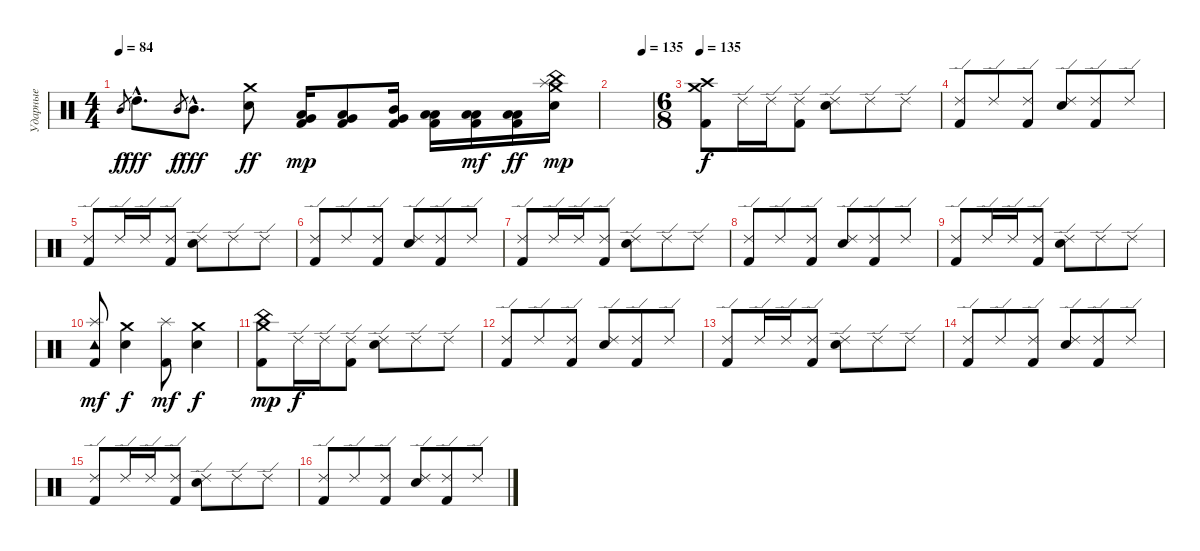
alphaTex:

\track ("Ударные" "Ударные") {instrument percussion}
\staff {score}
\articulation defaults
\ts (4 4)
\tempo 84
\clef neutral
\ks c "Mid Tom (hit)".8{gr dy f} "High Tom (hit)"{hac}.8{d dy fff} "Mid Tom (hit)".8{gr dy f} "Mid Tom (hit)"{hac}.8{d dy fff}
("Crash medium (hit)" "Snare (hit) 2").8{dy ff} ("Low Tom (hit)" "Very Low Tom (hit)" "Kick (hit) 2").16{dy mp} ("Low Tom (hit)" "Very Low Tom (hit)" "Kick (hit) 2").8 ("Mid Tom (hit)" "Very Low Tom (hit)" "Kick (hit) 2").16 ("Low Tom (hit)" "Low Floor Tom (hit)" "Kick (hit) 2").16 ("Low Tom (hit)" "Low Floor Tom (hit)" "Kick (hit) 2").16{dy mf} ("Low Tom (hit)" "Low Floor Tom (hit)" "Kick (hit) 2").16{dy ff} ("Splash (hit)" "Electric Snare (hit)" "Crash medium (hit)" "China (hit)").16{dy mp} |
\tempo (135 0.75)
|
\ts (6 8)
\tempo 135
("Crash high (hit)" "Crash medium (hit)" "Kick (hit) 2").8{dy f} "Ride (edge) 2".16 "Ride (edge) 2".16 ("Ride (edge) 2" "Kick (hit) 2").8 ("Ride (edge) 2" "Electric Snare (hit)").8 "Ride (edge) 2".8 "Ride (edge) 2".8 |
("Ride (edge) 2" "Kick (hit) 2").8 "Ride (edge) 2".8 ("Ride (edge) 2" "Kick (hit) 2").8 ("Ride (edge) 2" "Electric Snare (hit)").8 ("Ride (edge) 2" "Kick (hit) 2").8 "Ride (edge) 2".8 |
("Ride (edge) 2" "Kick (hit) 2").8 "Ride (edge) 2".16 "Ride (edge) 2".16 ("Ride (edge) 2" "Kick (hit) 2").8 ("Ride (edge) 2" "Electric Snare (hit)").8 "Ride (edge) 2".8 "Ride (edge) 2".8 |
("Ride (edge) 2" "Kick (hit) 2").8 "Ride (edge) 2".8 ("Ride (edge) 2" "Kick (hit) 2").8 ("Ride (edge) 2" "Electric Snare (hit)").8 ("Ride (edge) 2" "Kick (hit) 2").8 "Ride (edge) 2".8 |
("Ride (edge) 2" "Kick (hit) 2").8 "Ride (edge) 2".16 "Ride (edge) 2".16 ("Ride (edge) 2" "Kick (hit) 2").8 ("Ride (edge) 2" "Electric Snare (hit)").8 "Ride (edge) 2".8 "Ride (edge) 2".8 |
("Ride (edge) 2" "Kick (hit) 2").8 "Ride (edge) 2".8 ("Ride (edge) 2" "Kick (hit) 2").8 ("Ride (edge) 2" "Electric Snare (hit)").8 ("Ride (edge) 2" "Kick (hit) 2").8 "Ride (edge) 2".8 |
("Ride (edge) 2" "Kick (hit) 2").8 "Ride (edge) 2".16 "Ride (edge) 2".16 ("Ride (edge) 2" "Kick (hit) 2").8 ("Ride (edge) 2" "Electric Snare (hit)").8 "Ride (edge) 2".8 "Ride (edge) 2".8 |
("Kick (hit) 2" "Tambourine (hit)" "Splash (hit)").8{dy mf} ("Electric Snare (hit)" "Crash medium (hit)").4{dy f} ("Kick (hit) 2" "Splash (hit)").8{dy mf} ("Electric Snare (hit)" "Crash medium (hit)").4{dy f} |
("Crash medium (hit)" "China (hit)" "Kick (hit) 2").8{dy mp} "Ride (edge) 2".16{dy f} "Ride (edge) 2".16 ("Ride (edge) 2" "Kick (hit) 2").8 ("Ride (edge) 2" "Electric Snare (hit)").8 "Ride (edge) 2".8 "Ride (edge) 2".8 |
("Ride (edge) 2" "Kick (hit) 2").8 "Ride (edge) 2".8 ("Ride (edge) 2" "Kick (hit) 2").8 ("Ride (edge) 2" "Electric Snare (hit)").8 ("Ride (edge) 2" "Kick (hit) 2").8 "Ride (edge) 2".8 |
("Ride (edge) 2" "Kick (hit) 2").8 "Ride (edge) 2".16 "Ride (edge) 2".16 ("Ride (edge) 2" "Kick (hit) 2").8 ("Ride (edge) 2" "Electric Snare (hit)").8 "Ride (edge) 2".8 "Ride (edge) 2".8 |
("Ride (edge) 2" "Kick (hit) 2").8 "Ride (edge) 2".8 ("Ride (edge) 2" "Kick (hit) 2").8 ("Ride (edge) 2" "Electric Snare (hit)").8 ("Ride (edge) 2" "Kick (hit) 2").8 "Ride (edge) 2".8 |
("Ride (edge) 2" "Kick (hit) 2").8 "Ride (edge) 2".16 "Ride (edge) 2".16 ("Ride (edge) 2" "Kick (hit) 2").8 ("Ride (edge) 2" "Electric Snare (hit)").8 "Ride (edge) 2".8 "Ride (edge) 2".8 |
("Ride (edge) 2" "Kick (hit) 2").8 "Ride (edge) 2".8 ("Ride (edge) 2" "Kick (hit) 2").8 ("Ride (edge) 2" "Electric Snare (hit)").8 ("Ride (edge) 2" "Kick (hit) 2").8 "Ride (edge) 2".8
